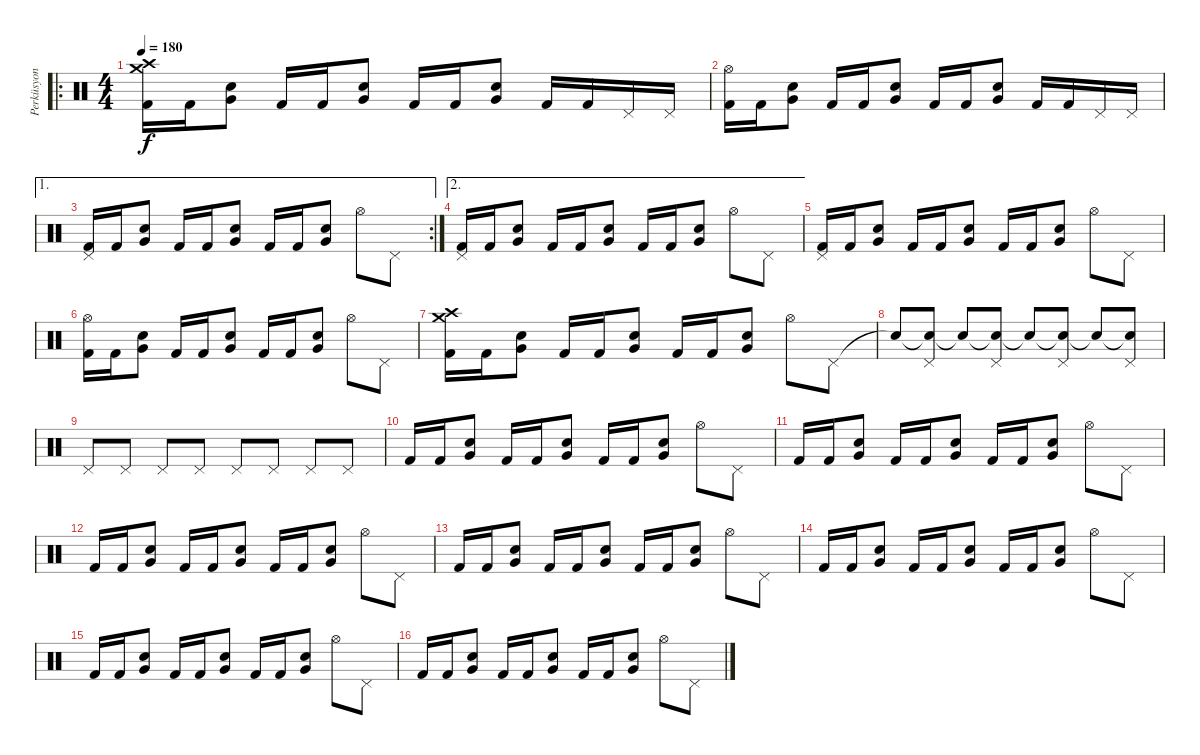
\track ("Perküsyon" "Perküsyon") {instrument percussion}
\staff {score}
\articulation defaults
\ro
\ts (4 4)
\tempo 180
\clef neutral
\ks c
("Crash high (hit)" "Crash medium (hit)" "Kick (hit) 2").16{dy f} "Kick (hit) 2".16 ("Electric Snare (hit)" "Very Low Tom (hit)").8 "Kick (hit) 2".16 "Kick (hit) 2".16 ("Electric Snare (hit)" "Very Low Tom (hit)").8 "Kick (hit) 2".16 "Kick (hit) 2".16 ("Electric Snare (hit)" "Very Low Tom (hit)").8 "Kick (hit) 2".16 "Kick (hit) 2".16 "Pedal Hi-Hat (hit)".16 "Pedal Hi-Hat (hit)".16 |
("Hi-Hat (open)" "Kick (hit) 2").16 "Kick (hit) 2".16 ("Electric Snare (hit)" "Very Low Tom (hit)").8 "Kick (hit) 2".16 "Kick (hit) 2".16 ("Electric Snare (hit)" "Very Low Tom (hit)").8 "Kick (hit) 2".16 "Kick (hit) 2".16 ("Electric Snare (hit)" "Very Low Tom (hit)").8 "Kick (hit) 2".16 "Kick (hit) 2".16 "Pedal Hi-Hat (hit)".16 "Pedal Hi-Hat (hit)".16 |
\ae 1
\rc 2
("Pedal Hi-Hat (hit)" "Kick (hit) 2").16 "Kick (hit) 2".16 ("Electric Snare (hit)" "Very Low Tom (hit)").8 "Kick (hit) 2".16 "Kick (hit) 2".16 ("Electric Snare (hit)" "Very Low Tom (hit)").8 "Kick (hit) 2".16 "Kick (hit) 2".16 ("Electric Snare (hit)" "Very Low Tom (hit)").8 "Hi-Hat (open)".8 "Pedal Hi-Hat (hit)".8 |
\ae 2
("Pedal Hi-Hat (hit)" "Kick (hit) 2").16 "Kick (hit) 2".16 ("Electric Snare (hit)" "Very Low Tom (hit)").8 "Kick (hit) 2".16 "Kick (hit) 2".16 ("Electric Snare (hit)" "Very Low Tom (hit)").8 "Kick (hit) 2".16 "Kick (hit) 2".16 ("Electric Snare (hit)" "Very Low Tom (hit)").8 "Hi-Hat (open)".8 "Pedal Hi-Hat (hit)".8 |
("Pedal Hi-Hat (hit)" "Kick (hit) 2").16 "Kick (hit) 2".16 ("Electric Snare (hit)" "Very Low Tom (hit)").8 "Kick (hit) 2".16 "Kick (hit) 2".16 ("Electric Snare (hit)" "Very Low Tom (hit)").8 "Kick (hit) 2".16 "Kick (hit) 2".16 ("Electric Snare (hit)" "Very Low Tom (hit)").8 "Hi-Hat (open)".8 "Pedal Hi-Hat (hit)".8 |
("Hi-Hat (open)" "Kick (hit) 2").16 "Kick (hit) 2".16 ("Electric Snare (hit)" "Very Low Tom (hit)").8 "Kick (hit) 2".16 "Kick (hit) 2".16 ("Electric Snare (hit)" "Very Low Tom (hit)").8 "Kick (hit) 2".16 "Kick (hit) 2".16 ("Electric Snare (hit)" "Very Low Tom (hit)").8 "Hi-Hat (open)".8 "Pedal Hi-Hat (hit)".8 |
("Crash high (hit)" "Crash medium (hit)" "Kick (hit) 2").16 "Kick (hit) 2".16 ("Electric Snare (hit)" "Very Low Tom (hit)").8 "Kick (hit) 2".16 "Kick (hit) 2".16 ("Electric Snare (hit)" "Very Low Tom (hit)").8 "Kick (hit) 2".16 "Kick (hit) 2".16 ("Electric Snare (hit)" "Very Low Tom (hit)").8 "Hi-Hat (open)".8 "Pedal Hi-Hat (hit)".8 |
"Snare (hit)"{t}.8 ("Snare (hit)"{t} "Pedal Hi-Hat (hit)").8 "Snare (hit)"{t}.8 ("Snare (hit)"{t} "Pedal Hi-Hat (hit)").8 "Snare (hit)"{t}.8 ("Snare (hit)"{t} "Pedal Hi-Hat (hit)").8 "Snare (hit)"{t}.8 ("Snare (hit)"{t} "Pedal Hi-Hat (hit)").8 |
"Pedal Hi-Hat (hit)".8 "Pedal Hi-Hat (hit)".8 "Pedal Hi-Hat (hit)".8 "Pedal Hi-Hat (hit)".8 "Pedal Hi-Hat (hit)".8 "Pedal Hi-Hat (hit)".8 "Pedal Hi-Hat (hit)".8 "Pedal Hi-Hat (hit)".8 |
"Kick (hit) 2".16{volume 1} "Kick (hit) 2".16 ("Electric Snare (hit)" "Very Low Tom (hit)").8 "Kick (hit) 2".16 "Kick (hit) 2".16 ("Electric Snare (hit)" "Very Low Tom (hit)").8 "Kick (hit) 2".16 "Kick (hit) 2".16 ("Electric Snare (hit)" "Very Low Tom (hit)").8 "Hi-Hat (open)".8 "Pedal Hi-Hat (hit)".8 |
"Kick (hit) 2".16{volume 2} "Kick (hit) 2".16 ("Electric Snare (hit)" "Very Low Tom (hit)").8 "Kick (hit) 2".16 "Kick (hit) 2".16 ("Electric Snare (hit)" "Very Low Tom (hit)").8 "Kick (hit) 2".16 "Kick (hit) 2".16 ("Electric Snare (hit)" "Very Low Tom (hit)").8 "Hi-Hat (open)".8 "Pedal Hi-Hat (hit)".8 |
"Kick (hit) 2".16{volume 3} "Kick (hit) 2".16 ("Electric Snare (hit)" "Very Low Tom (hit)").8 "Kick (hit) 2".16 "Kick (hit) 2".16 ("Electric Snare (hit)" "Very Low Tom (hit)").8 "Kick (hit) 2".16 "Kick (hit) 2".16 ("Electric Snare (hit)" "Very Low Tom (hit)").8 "Hi-Hat (open)".8 "Pedal Hi-Hat (hit)".8 |
"Kick (hit) 2".16{volume 4} "Kick (hit) 2".16 ("Electric Snare (hit)" "Very Low Tom (hit)").8 "Kick (hit) 2".16 "Kick (hit) 2".16 ("Electric Snare (hit)" "Very Low Tom (hit)").8 "Kick (hit) 2".16 "Kick (hit) 2".16 ("Electric Snare (hit)" "Very Low Tom (hit)").8 "Hi-Hat (open)".8 "Pedal Hi-Hat (hit)".8 |
"Kick (hit) 2".16{volume 5} "Kick (hit) 2".16 ("Electric Snare (hit)" "Very Low Tom (hit)").8 "Kick (hit) 2".16 "Kick (hit) 2".16 ("Electric Snare (hit)" "Very Low Tom (hit)").8 "Kick (hit) 2".16 "Kick (hit) 2".16 ("Electric Snare (hit)" "Very Low Tom (hit)").8 "Hi-Hat (open)".8 "Pedal Hi-Hat (hit)".8 |
"Kick (hit) 2".16{volume 6} "Kick (hit) 2".16 ("Electric Snare (hit)" "Very Low Tom (hit)").8 "Kick (hit) 2".16 "Kick (hit) 2".16 ("Electric Snare (hit)" "Very Low Tom (hit)").8 "Kick (hit) 2".16 "Kick (hit) 2".16 ("Electric Snare (hit)" "Very Low Tom (hit)").8 "Hi-Hat (open)".8 "Pedal Hi-Hat (hit)".8 |
"Kick (hit) 2".16{volume 7} "Kick (hit) 2".16 ("Electric Snare (hit)" "Very Low Tom (hit)").8 "Kick (hit) 2".16 "Kick (hit) 2".16 ("Electric Snare (hit)" "Very Low Tom (hit)").8 "Kick (hit) 2".16 "Kick (hit) 2".16 ("Electric Snare (hit)" "Very Low Tom (hit)").8 "Hi-Hat (open)".8 "Pedal Hi-Hat (hit)".8
